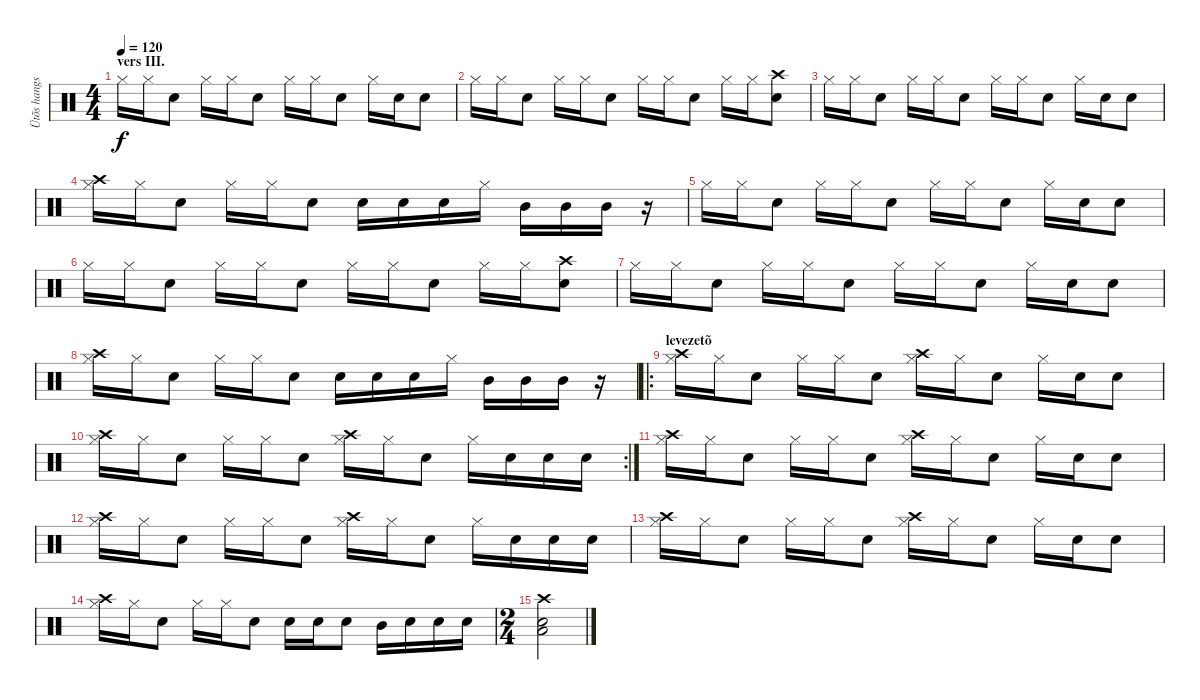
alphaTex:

\track ("Ütõs hangszer" "Ütõs hangs") {instrument percussion}
\staff {score}
\articulation defaults
\ts (4 4)
\section ("" "vers III.")
\tempo 120
\clef neutral
\ks c "Hi-Hat (closed)".16{dy f} "Hi-Hat (closed)".16 "Electric Snare (hit)".8 "Hi-Hat (closed)".16 "Hi-Hat (closed)".16 "Electric Snare (hit)".8 "Hi-Hat (closed)".16 "Hi-Hat (closed)".16 "Electric Snare (hit)".8 "Hi-Hat (closed)".16 "Snare (hit)".16 "Electric Snare (hit)".8
|
"Hi-Hat (closed)".16 "Hi-Hat (closed)".16 "Electric Snare (hit)".8 "Hi-Hat (closed)".16 "Hi-Hat (closed)".16 "Electric Snare (hit)".8 "Hi-Hat (closed)".16 "Hi-Hat (closed)".16 "Electric Snare (hit)".8 "Hi-Hat (closed)".16 "Hi-Hat (closed)".16 ("Electric Snare (hit)" "Crash high (hit)").8 |
"Hi-Hat (closed)".16 "Hi-Hat (closed)".16 "Electric Snare (hit)".8 "Hi-Hat (closed)".16 "Hi-Hat (closed)".16 "Electric Snare (hit)".8 "Hi-Hat (closed)".16 "Hi-Hat (closed)".16 "Electric Snare (hit)".8 "Hi-Hat (closed)".16 "Snare (hit)".16 "Electric Snare (hit)".8 |
("Hi-Hat (closed)" "Crash high (hit)").16 "Hi-Hat (closed)".16 "Electric Snare (hit)".8 "Hi-Hat (closed)".16 "Hi-Hat (closed)".16 "Electric Snare (hit)".8 "Electric Snare (hit)".16 "Electric Snare (hit)".16 "Electric Snare (hit)".16 "Hi-Hat (closed)".16 "Mid Tom (hit)".16 "Mid Tom (hit)".16 "Mid Tom (hit)".16 r.16 |
"Hi-Hat (closed)".16 "Hi-Hat (closed)".16 "Electric Snare (hit)".8 "Hi-Hat (closed)".16 "Hi-Hat (closed)".16 "Electric Snare (hit)".8 "Hi-Hat (closed)".16 "Hi-Hat (closed)".16 "Electric Snare (hit)".8 "Hi-Hat (closed)".16 "Snare (hit)".16 "Electric Snare (hit)".8 |
"Hi-Hat (closed)".16 "Hi-Hat (closed)".16 "Electric Snare (hit)".8 "Hi-Hat (closed)".16 "Hi-Hat (closed)".16 "Electric Snare (hit)".8 "Hi-Hat (closed)".16 "Hi-Hat (closed)".16 "Electric Snare (hit)".8 "Hi-Hat (closed)".16 "Hi-Hat (closed)".16 ("Electric Snare (hit)" "Crash high (hit)").8 |
"Hi-Hat (closed)".16 "Hi-Hat (closed)".16 "Electric Snare (hit)".8 "Hi-Hat (closed)".16 "Hi-Hat (closed)".16 "Electric Snare (hit)".8 "Hi-Hat (closed)".16 "Hi-Hat (closed)".16 "Electric Snare (hit)".8 "Hi-Hat (closed)".16 "Snare (hit)".16 "Electric Snare (hit)".8 |
("Hi-Hat (closed)" "Crash high (hit)").16 "Hi-Hat (closed)".16 "Electric Snare (hit)".8 "Hi-Hat (closed)".16 "Hi-Hat (closed)".16 "Electric Snare (hit)".8 "Electric Snare (hit)".16 "Electric Snare (hit)".16 "Electric Snare (hit)".16 "Hi-Hat (closed)".16 "Mid Tom (hit)".16 "Mid Tom (hit)".16 "Mid Tom (hit)".16 r.16 |
\ro
\section ("" "levezetõ")
("Hi-Hat (closed)" "Crash high (hit)").16 "Hi-Hat (closed)".16 "Electric Snare (hit)".8 "Hi-Hat (closed)".16 "Hi-Hat (closed)".16 "Electric Snare (hit)".8 ("Hi-Hat (closed)" "Crash high (hit)").16 "Hi-Hat (closed)".16 "Electric Snare (hit)".8 "Hi-Hat (closed)".16 "Snare (hit)".16 "Electric Snare (hit)".8 |
\rc 2
("Hi-Hat (closed)" "Crash high (hit)").16 "Hi-Hat (closed)".16 "Electric Snare (hit)".8 "Hi-Hat (closed)".16 "Hi-Hat (closed)".16 "Electric Snare (hit)".8 ("Hi-Hat (closed)" "Crash high (hit)").16 "Hi-Hat (closed)".16 "Electric Snare (hit)".8 "Hi-Hat (closed)".16 "Electric Snare (hit)".16 "Electric Snare (hit)".16 "Electric Snare (hit)".16 |
("Hi-Hat (closed)" "Crash high (hit)").16 "Hi-Hat (closed)".16 "Electric Snare (hit)".8 "Hi-Hat (closed)".16 "Hi-Hat (closed)".16 "Electric Snare (hit)".8 ("Hi-Hat (closed)" "Crash high (hit)").16 "Hi-Hat (closed)".16 "Electric Snare (hit)".8 "Hi-Hat (closed)".16 "Snare (hit)".16 "Electric Snare (hit)".8 |
("Hi-Hat (closed)" "Crash high (hit)").16 "Hi-Hat (closed)".16 "Electric Snare (hit)".8 "Hi-Hat (closed)".16 "Hi-Hat (closed)".16 "Electric Snare (hit)".8 ("Hi-Hat (closed)" "Crash high (hit)").16 "Hi-Hat (closed)".16 "Electric Snare (hit)".8 "Hi-Hat (closed)".16 "Electric Snare (hit)".16 "Electric Snare (hit)".16 "Electric Snare (hit)".16 |
("Hi-Hat (closed)" "Crash high (hit)").16 "Hi-Hat (closed)".16 "Electric Snare (hit)".8 "Hi-Hat (closed)".16 "Hi-Hat (closed)".16 "Electric Snare (hit)".8 ("Hi-Hat (closed)" "Crash high (hit)").16 "Hi-Hat (closed)".16 "Electric Snare (hit)".8 "Hi-Hat (closed)".16 "Snare (hit)".16 "Electric Snare (hit)".8 |
("Hi-Hat (closed)" "Crash high (hit)").16 "Hi-Hat (closed)".16 "Electric Snare (hit)".8 "Hi-Hat (closed)".16 "Hi-Hat (closed)".16 "Electric Snare (hit)".8 "Electric Snare (hit)".16 "Electric Snare (hit)".16 "Electric Snare (hit)".8 "Mid Tom (hit)".16 "Electric Snare (hit)".16 "Electric Snare (hit)".16 "Electric Snare (hit)".16 |
\ts (2 4)
("Low Tom (hit)" "Electric Snare (hit)" "Crash high (hit)").2
